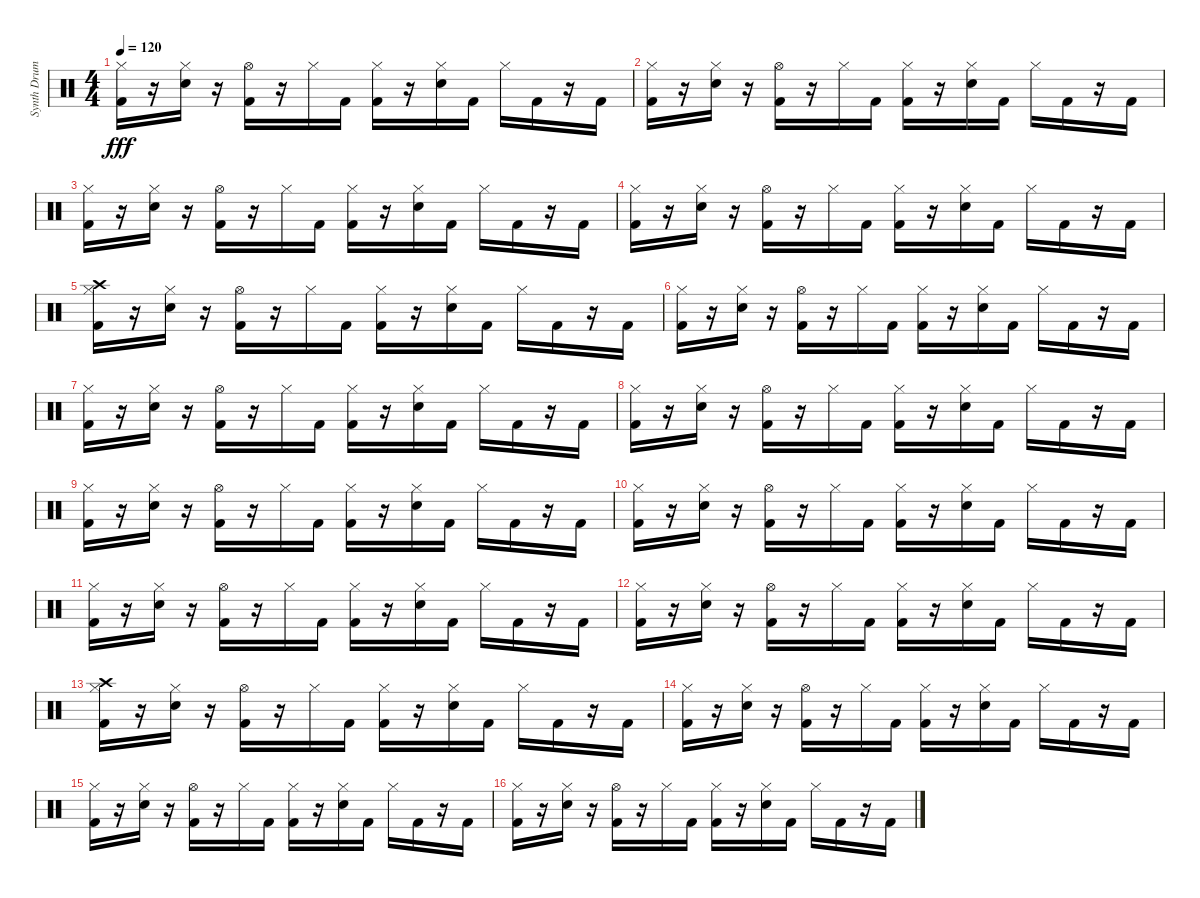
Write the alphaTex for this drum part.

\track ("Synth Drums" "Synth Drum") {instrument percussion}
\staff {score}
\articulation defaults
\ts (4 4)
\tempo 120
\clef neutral
\ks c
("Hi-Hat (closed)" "Kick (hit) 2").16{dy fff} r.16 ("Hi-Hat (closed)" "Snare (hit) 2").16 r.16 ("Hi-Hat (open)" "Kick (hit) 2").16 r.16 "Hi-Hat (closed)".16 "Kick (hit) 2".16 ("Hi-Hat (closed)" "Kick (hit) 2").16 r.16 ("Hi-Hat (closed)" "Snare (hit) 2").16 "Kick (hit) 2".16 "Hi-Hat (closed)".16 "Kick (hit) 2".16 r.16 "Kick (hit) 2".16 |
("Hi-Hat (closed)" "Kick (hit) 2").16 r.16 ("Hi-Hat (closed)" "Snare (hit) 2").16 r.16 ("Hi-Hat (open)" "Kick (hit) 2").16 r.16 "Hi-Hat (closed)".16 "Kick (hit) 2".16 ("Hi-Hat (closed)" "Kick (hit) 2").16 r.16 ("Hi-Hat (closed)" "Snare (hit) 2").16 "Kick (hit) 2".16 "Hi-Hat (closed)".16 "Kick (hit) 2".16 r.16 "Kick (hit) 2".16 |
("Hi-Hat (closed)" "Kick (hit) 2").16 r.16 ("Hi-Hat (closed)" "Snare (hit) 2").16 r.16 ("Hi-Hat (open)" "Kick (hit) 2").16 r.16 "Hi-Hat (closed)".16 "Kick (hit) 2".16 ("Hi-Hat (closed)" "Kick (hit) 2").16 r.16 ("Hi-Hat (closed)" "Snare (hit) 2").16 "Kick (hit) 2".16 "Hi-Hat (closed)".16 "Kick (hit) 2".16 r.16 "Kick (hit) 2".16 |
("Hi-Hat (closed)" "Kick (hit) 2").16 r.16 ("Hi-Hat (closed)" "Snare (hit) 2").16 r.16 ("Hi-Hat (open)" "Kick (hit) 2").16 r.16 "Hi-Hat (closed)".16 "Kick (hit) 2".16 ("Hi-Hat (closed)" "Kick (hit) 2").16 r.16 ("Hi-Hat (closed)" "Snare (hit) 2").16 "Kick (hit) 2".16 "Hi-Hat (closed)".16 "Kick (hit) 2".16 r.16 "Kick (hit) 2".16 |
("Hi-Hat (closed)" "Crash high (hit)" "Kick (hit) 2").16 r.16 ("Hi-Hat (closed)" "Snare (hit) 2").16 r.16 ("Hi-Hat (open)" "Kick (hit) 2").16 r.16 "Hi-Hat (closed)".16 "Kick (hit) 2".16 ("Hi-Hat (closed)" "Kick (hit) 2").16 r.16 ("Hi-Hat (closed)" "Snare (hit) 2").16 "Kick (hit) 2".16 "Hi-Hat (closed)".16 "Kick (hit) 2".16 r.16 "Kick (hit) 2".16 |
("Hi-Hat (closed)" "Kick (hit) 2").16 r.16 ("Hi-Hat (closed)" "Snare (hit) 2").16 r.16 ("Hi-Hat (open)" "Kick (hit) 2").16 r.16 "Hi-Hat (closed)".16 "Kick (hit) 2".16 ("Hi-Hat (closed)" "Kick (hit) 2").16 r.16 ("Hi-Hat (closed)" "Snare (hit) 2").16 "Kick (hit) 2".16 "Hi-Hat (closed)".16 "Kick (hit) 2".16 r.16 "Kick (hit) 2".16 |
("Hi-Hat (closed)" "Kick (hit) 2").16 r.16 ("Hi-Hat (closed)" "Snare (hit) 2").16 r.16 ("Hi-Hat (open)" "Kick (hit) 2").16 r.16 "Hi-Hat (closed)".16 "Kick (hit) 2".16 ("Hi-Hat (closed)" "Kick (hit) 2").16 r.16 ("Hi-Hat (closed)" "Snare (hit) 2").16 "Kick (hit) 2".16 "Hi-Hat (closed)".16 "Kick (hit) 2".16 r.16 "Kick (hit) 2".16 |
("Hi-Hat (closed)" "Kick (hit) 2").16 r.16 ("Hi-Hat (closed)" "Snare (hit) 2").16 r.16 ("Hi-Hat (open)" "Kick (hit) 2").16 r.16 "Hi-Hat (closed)".16 "Kick (hit) 2".16 ("Hi-Hat (closed)" "Kick (hit) 2").16 r.16 ("Hi-Hat (closed)" "Snare (hit) 2").16 "Kick (hit) 2".16 "Hi-Hat (closed)".16 "Kick (hit) 2".16 r.16 "Kick (hit) 2".16 |
("Hi-Hat (closed)" "Kick (hit) 2").16 r.16 ("Hi-Hat (closed)" "Snare (hit) 2").16 r.16 ("Hi-Hat (open)" "Kick (hit) 2").16 r.16 "Hi-Hat (closed)".16 "Kick (hit) 2".16 ("Hi-Hat (closed)" "Kick (hit) 2").16 r.16 ("Hi-Hat (closed)" "Snare (hit) 2").16 "Kick (hit) 2".16 "Hi-Hat (closed)".16 "Kick (hit) 2".16 r.16 "Kick (hit) 2".16 |
("Hi-Hat (closed)" "Kick (hit) 2").16 r.16 ("Hi-Hat (closed)" "Snare (hit) 2").16 r.16 ("Hi-Hat (open)" "Kick (hit) 2").16 r.16 "Hi-Hat (closed)".16 "Kick (hit) 2".16 ("Hi-Hat (closed)" "Kick (hit) 2").16 r.16 ("Hi-Hat (closed)" "Snare (hit) 2").16 "Kick (hit) 2".16 "Hi-Hat (closed)".16 "Kick (hit) 2".16 r.16 "Kick (hit) 2".16 |
("Hi-Hat (closed)" "Kick (hit) 2").16 r.16 ("Hi-Hat (closed)" "Snare (hit) 2").16 r.16 ("Hi-Hat (open)" "Kick (hit) 2").16 r.16 "Hi-Hat (closed)".16 "Kick (hit) 2".16 ("Hi-Hat (closed)" "Kick (hit) 2").16 r.16 ("Hi-Hat (closed)" "Snare (hit) 2").16 "Kick (hit) 2".16 "Hi-Hat (closed)".16 "Kick (hit) 2".16 r.16 "Kick (hit) 2".16 |
("Hi-Hat (closed)" "Kick (hit) 2").16 r.16 ("Hi-Hat (closed)" "Snare (hit) 2").16 r.16 ("Hi-Hat (open)" "Kick (hit) 2").16 r.16 "Hi-Hat (closed)".16 "Kick (hit) 2".16 ("Hi-Hat (closed)" "Kick (hit) 2").16 r.16 ("Hi-Hat (closed)" "Snare (hit) 2").16 "Kick (hit) 2".16 "Hi-Hat (closed)".16 "Kick (hit) 2".16 r.16 "Kick (hit) 2".16 |
("Hi-Hat (closed)" "Crash high (hit)" "Kick (hit) 2").16 r.16 ("Hi-Hat (closed)" "Snare (hit) 2").16 r.16 ("Hi-Hat (open)" "Kick (hit) 2").16 r.16 "Hi-Hat (closed)".16 "Kick (hit) 2".16 ("Hi-Hat (closed)" "Kick (hit) 2").16 r.16 ("Hi-Hat (closed)" "Snare (hit) 2").16 "Kick (hit) 2".16 "Hi-Hat (closed)".16 "Kick (hit) 2".16 r.16 "Kick (hit) 2".16 |
("Hi-Hat (closed)" "Kick (hit) 2").16 r.16 ("Hi-Hat (closed)" "Snare (hit) 2").16 r.16 ("Hi-Hat (open)" "Kick (hit) 2").16 r.16 "Hi-Hat (closed)".16 "Kick (hit) 2".16 ("Hi-Hat (closed)" "Kick (hit) 2").16 r.16 ("Hi-Hat (closed)" "Snare (hit) 2").16 "Kick (hit) 2".16 "Hi-Hat (closed)".16 "Kick (hit) 2".16 r.16 "Kick (hit) 2".16 |
("Hi-Hat (closed)" "Kick (hit) 2").16 r.16 ("Hi-Hat (closed)" "Snare (hit) 2").16 r.16 ("Hi-Hat (open)" "Kick (hit) 2").16 r.16 "Hi-Hat (closed)".16 "Kick (hit) 2".16 ("Hi-Hat (closed)" "Kick (hit) 2").16 r.16 ("Hi-Hat (closed)" "Snare (hit) 2").16 "Kick (hit) 2".16 "Hi-Hat (closed)".16 "Kick (hit) 2".16 r.16 "Kick (hit) 2".16 |
("Hi-Hat (closed)" "Kick (hit) 2").16 r.16 ("Hi-Hat (closed)" "Snare (hit) 2").16 r.16 ("Hi-Hat (open)" "Kick (hit) 2").16 r.16 "Hi-Hat (closed)".16 "Kick (hit) 2".16 ("Hi-Hat (closed)" "Kick (hit) 2").16 r.16 ("Hi-Hat (closed)" "Snare (hit) 2").16 "Kick (hit) 2".16 "Hi-Hat (closed)".16 "Kick (hit) 2".16 r.16 "Kick (hit) 2".16
